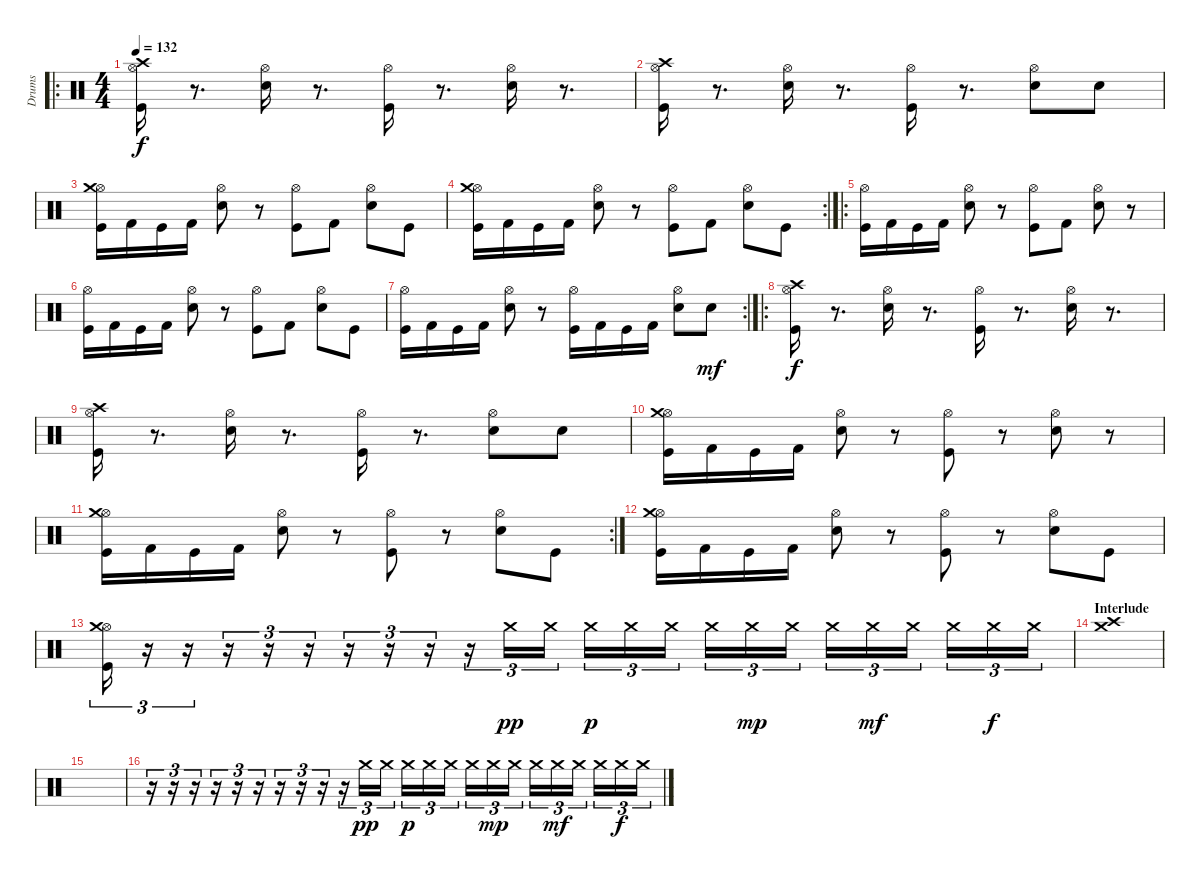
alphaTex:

\track ("Drums" "Drums") {instrument percussion}
\staff {score}
\articulation defaults
\ro
\ts (4 4)
\tempo 132
\clef neutral
\ks c
("Hi-Hat (open)" "Crash high (hit)" "Kick (hit)").16{dy f} r.8{d} ("Hi-Hat (open)" "Electric Snare (hit)").16 r.8{d} ("Hi-Hat (open)" "Kick (hit)").16 r.8{d} ("Hi-Hat (open)" "Electric Snare (hit)").16 r.8{d} |
("Hi-Hat (open)" "Crash high (hit)" "Kick (hit)").16 r.8{d} ("Hi-Hat (open)" "Electric Snare (hit)").16 r.8{d} ("Hi-Hat (open)" "Kick (hit)").16 r.8{d} ("Hi-Hat (open)" "Electric Snare (hit)").8 "Electric Snare (hit)".8 |
("Hi-Hat (open)" "Crash medium (hit)" "Kick (hit)").16 "Kick (hit) 2".16 "Kick (hit)".16 "Kick (hit) 2".16 ("Hi-Hat (open)" "Electric Snare (hit)").8 r.8 ("Hi-Hat (open)" "Kick (hit)").8 "Kick (hit) 2".8 ("Hi-Hat (open)" "Electric Snare (hit)").8 "Kick (hit)".8 |
\rc 2
("Hi-Hat (open)" "Crash medium (hit)" "Kick (hit)").16 "Kick (hit) 2".16 "Kick (hit)".16 "Kick (hit) 2".16 ("Hi-Hat (open)" "Electric Snare (hit)").8 r.8 ("Hi-Hat (open)" "Kick (hit)").8 "Kick (hit) 2".8 ("Hi-Hat (open)" "Electric Snare (hit)").8 "Kick (hit)".8 |
\ro
("Hi-Hat (open)" "Kick (hit)").16 "Kick (hit) 2".16 "Kick (hit)".16 "Kick (hit) 2".16 ("Hi-Hat (open)" "Electric Snare (hit)").8 r.8 ("Hi-Hat (open)" "Kick (hit)").8 "Kick (hit) 2".8 ("Hi-Hat (open)" "Electric Snare (hit)").8 r.8 |
("Hi-Hat (open)" "Kick (hit)").16 "Kick (hit) 2".16 "Kick (hit)".16 "Kick (hit) 2".16 ("Hi-Hat (open)" "Electric Snare (hit)").8 r.8 ("Hi-Hat (open)" "Kick (hit)").8 "Kick (hit) 2".8 ("Hi-Hat (open)" "Electric Snare (hit)").8 "Kick (hit)".8 |
\rc 2
("Hi-Hat (open)" "Kick (hit)").16 "Kick (hit) 2".16 "Kick (hit)".16 "Kick (hit) 2".16 ("Hi-Hat (open)" "Electric Snare (hit)").8 r.8 ("Hi-Hat (open)" "Kick (hit)").16 "Kick (hit) 2".16 "Kick (hit)".16 "Kick (hit) 2".16 ("Hi-Hat (open)" "Electric Snare (hit)").8 "Electric Snare (hit)".8{dy mf} |
\ro
("Hi-Hat (open)" "Crash high (hit)" "Kick (hit)").16{dy f} r.8{d} ("Hi-Hat (open)" "Electric Snare (hit)").16 r.8{d} ("Hi-Hat (open)" "Kick (hit)").16 r.8{d} ("Hi-Hat (open)" "Electric Snare (hit)").16 r.8{d} |
("Hi-Hat (open)" "Crash high (hit)" "Kick (hit)").16 r.8{d} ("Hi-Hat (open)" "Electric Snare (hit)").16 r.8{d} ("Hi-Hat (open)" "Kick (hit)").16 r.8{d} ("Hi-Hat (open)" "Electric Snare (hit)").8 "Electric Snare (hit)".8 |
("Hi-Hat (open)" "Crash medium (hit)" "Kick (hit)").16 "Kick (hit) 2".16 "Kick (hit)".16 "Kick (hit) 2".16 ("Hi-Hat (open)" "Electric Snare (hit)").8 r.8 ("Hi-Hat (open)" "Kick (hit)").8 r.8 ("Hi-Hat (open)" "Electric Snare (hit)").8 r.8 |
\rc 2
("Hi-Hat (open)" "Crash medium (hit)" "Kick (hit)").16 "Kick (hit) 2".16 "Kick (hit)".16 "Kick (hit) 2".16 ("Hi-Hat (open)" "Electric Snare (hit)").8 r.8 ("Hi-Hat (open)" "Kick (hit)").8 r.8 ("Hi-Hat (open)" "Electric Snare (hit)").8 "Kick (hit)".8 |
("Hi-Hat (open)" "Crash medium (hit)" "Kick (hit)").16 "Kick (hit) 2".16 "Kick (hit)".16 "Kick (hit) 2".16 ("Hi-Hat (open)" "Electric Snare (hit)").8 r.8 ("Hi-Hat (open)" "Kick (hit)").8 r.8 ("Hi-Hat (open)" "Electric Snare (hit)").8 "Kick (hit)".8 |
("Hi-Hat (open)" "Crash medium (hit)" "Kick (hit)").16{tu (3 2)} r.16{tu (3 2)} r.16{tu (3 2)} r.16{tu (3 2)} r.16{tu (3 2)} r.16{tu (3 2)} r.16{tu (3 2)} r.16{tu (3 2)} r.16{tu (3 2)} r.16{tu (3 2)} "Crash medium (hit)".16{tu (3 2) dy pp} "Crash medium (hit)".16{tu (3 2)} "Crash medium (hit)".16{tu (3 2) dy p} "Crash medium (hit)".16{tu (3 2)} "Crash medium (hit)".16{tu (3 2)} "Crash medium (hit)".16{tu (3 2)} "Crash medium (hit)".16{tu (3 2) dy mp} "Crash medium (hit)".16{tu (3 2)} "Crash medium (hit)".16{tu (3 2)} "Crash medium (hit)".16{tu (3 2) dy mf} "Crash medium (hit)".16{tu (3 2)} "Crash medium (hit)".16{tu (3 2)} "Crash medium (hit)".16{tu (3 2) dy f} "Crash medium (hit)".16{tu (3 2)} |
\section ("" "Interlude")
("Crash medium (hit)" "Crash high (hit)").1 |
|
r.16{tu (3 2)} r.16{tu (3 2)} r.16{tu (3 2)} r.16{tu (3 2)} r.16{tu (3 2)} r.16{tu (3 2)} r.16{tu (3 2)} r.16{tu (3 2)} r.16{tu (3 2)} r.16{tu (3 2)} "Crash medium (hit)".16{tu (3 2) dy pp} "Crash medium (hit)".16{tu (3 2)} "Crash medium (hit)".16{tu (3 2) dy p} "Crash medium (hit)".16{tu (3 2)} "Crash medium (hit)".16{tu (3 2)} "Crash medium (hit)".16{tu (3 2)} "Crash medium (hit)".16{tu (3 2) dy mp} "Crash medium (hit)".16{tu (3 2)} "Crash medium (hit)".16{tu (3 2)} "Crash medium (hit)".16{tu (3 2) dy mf} "Crash medium (hit)".16{tu (3 2)} "Crash medium (hit)".16{tu (3 2)} "Crash medium (hit)".16{tu (3 2) dy f} "Crash medium (hit)".16{tu (3 2)}
